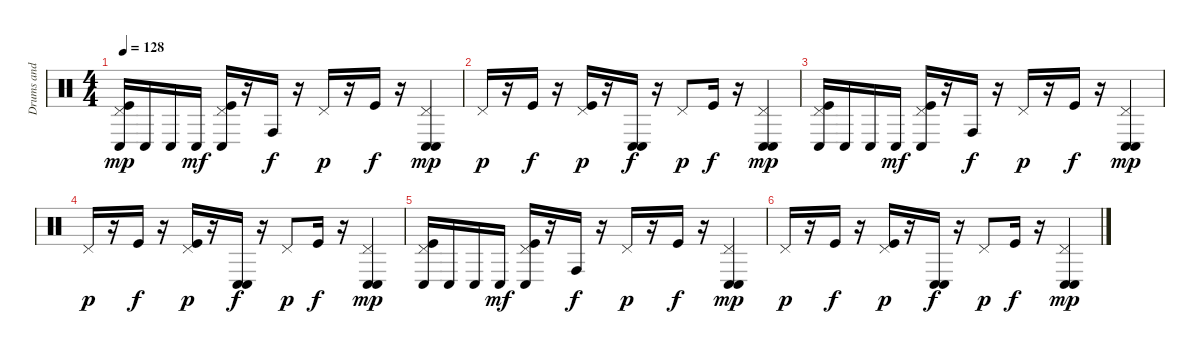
\track ("Drums and Percussions" "Drums and ") {instrument percussion}
\staff {score}
\articulation defaults
\ts (4 4)
\tempo 128
\clef neutral
\ks c
("Pedal Hi-Hat (hit)" "Conga low (hit)" "Kick (hit)").16{dy mp} "Conga low (hit)".16 "Conga low (hit)".16 "Conga low (hit)".16{dy mf} ("Pedal Hi-Hat (hit)" "Conga low (hit)" "Kick (hit)").16 r.16 "Conga high (hit)".16{dy f} r.16 "Pedal Hi-Hat (hit)".16{dy p} r.16 "Kick (hit)".16{dy f} r.16 ("Conga low (hit)" "Conga low (hit)" "Pedal Hi-Hat (hit)").4{bd 120 dy mp} |
"Pedal Hi-Hat (hit)".16{dy p} r.16 "Kick (hit)".16{dy f} r.16 ("Pedal Hi-Hat (hit)" "Kick (hit)").16{dy p} r.16 ("Conga low (hit)" "Conga low (hit)").16{bd 120 dy f} r.16 "Pedal Hi-Hat (hit)".8{dy p} "Kick (hit)".16{dy f} r.16 ("Conga low (hit)" "Conga low (hit)" "Pedal Hi-Hat (hit)").4{bd 120 dy mp} |
("Pedal Hi-Hat (hit)" "Conga low (hit)" "Kick (hit)").16 "Conga low (hit)".16 "Conga low (hit)".16 "Conga low (hit)".16{dy mf} ("Pedal Hi-Hat (hit)" "Conga low (hit)" "Kick (hit)").16 r.16 "Conga high (hit)".16{dy f} r.16 "Pedal Hi-Hat (hit)".16{dy p} r.16 "Kick (hit)".16{dy f} r.16 ("Conga low (hit)" "Conga low (hit)" "Pedal Hi-Hat (hit)").4{bd 120 dy mp} |
"Pedal Hi-Hat (hit)".16{dy p} r.16 "Kick (hit)".16{dy f} r.16 ("Pedal Hi-Hat (hit)" "Kick (hit)").16{dy p} r.16 ("Conga low (hit)" "Conga low (hit)").16{bd 120 dy f} r.16 "Pedal Hi-Hat (hit)".8{dy p} "Kick (hit)".16{dy f} r.16 ("Conga low (hit)" "Conga low (hit)" "Pedal Hi-Hat (hit)").4{bd 120 dy mp} |
("Pedal Hi-Hat (hit)" "Conga low (hit)" "Kick (hit)").16 "Conga low (hit)".16 "Conga low (hit)".16 "Conga low (hit)".16{dy mf} ("Pedal Hi-Hat (hit)" "Conga low (hit)" "Kick (hit)").16 r.16 "Conga high (hit)".16{dy f} r.16 "Pedal Hi-Hat (hit)".16{dy p} r.16 "Kick (hit)".16{dy f} r.16 ("Conga low (hit)" "Conga low (hit)" "Pedal Hi-Hat (hit)").4{bd 120 dy mp} |
"Pedal Hi-Hat (hit)".16{dy p} r.16 "Kick (hit)".16{dy f} r.16 ("Pedal Hi-Hat (hit)" "Kick (hit)").16{dy p} r.16 ("Conga low (hit)" "Conga low (hit)").16{bd 120 dy f} r.16 "Pedal Hi-Hat (hit)".8{dy p} "Kick (hit)".16{dy f} r.16 ("Conga low (hit)" "Conga low (hit)" "Pedal Hi-Hat (hit)").4{bd 120 dy mp}
